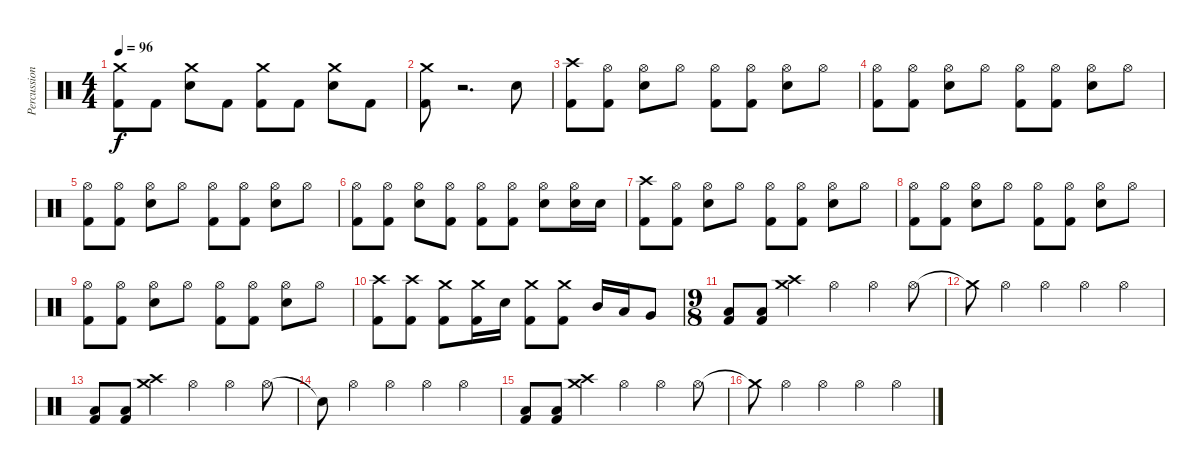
\track ("Percussion" "Percussion") {instrument percussion}
\staff {score}
\articulation defaults
\ts (4 4)
\tempo 96
\clef neutral
\ks c
("Crash medium (hit)" "Kick (hit) 2").8{dy f} "Kick (hit) 2".8 ("Crash medium (hit)" "Electric Snare (hit)").8 "Kick (hit) 2".8 ("Crash medium (hit)" "Kick (hit) 2").8 "Kick (hit) 2".8 ("Crash medium (hit)" "Electric Snare (hit)").8 "Kick (hit) 2".8 |
("Crash medium (hit)" "Kick (hit) 2").8 r.2{d} "Electric Snare (hit)".8 |
("Crash high (hit)" "Kick (hit) 2").8 ("Hi-Hat (open)" "Kick (hit) 2").8 ("Hi-Hat (open)" "Electric Snare (hit)").8 "Hi-Hat (open)".8 ("Hi-Hat (open)" "Kick (hit) 2").8 ("Hi-Hat (open)" "Kick (hit) 2").8 ("Hi-Hat (open)" "Electric Snare (hit)").8 "Hi-Hat (open)".8 |
("Hi-Hat (open)" "Kick (hit) 2").8 ("Hi-Hat (open)" "Kick (hit) 2").8 ("Hi-Hat (open)" "Electric Snare (hit)").8 "Hi-Hat (open)".8 ("Hi-Hat (open)" "Kick (hit) 2").8 ("Hi-Hat (open)" "Kick (hit) 2").8 ("Hi-Hat (open)" "Electric Snare (hit)").8 "Hi-Hat (open)".8 |
("Hi-Hat (open)" "Kick (hit) 2").8 ("Hi-Hat (open)" "Kick (hit) 2").8 ("Hi-Hat (open)" "Electric Snare (hit)").8 "Hi-Hat (open)".8 ("Hi-Hat (open)" "Kick (hit) 2").8 ("Hi-Hat (open)" "Kick (hit) 2").8 ("Hi-Hat (open)" "Electric Snare (hit)").8 "Hi-Hat (open)".8 |
("Hi-Hat (open)" "Kick (hit) 2").8 ("Hi-Hat (open)" "Kick (hit) 2").8 ("Hi-Hat (open)" "Electric Snare (hit)").8 ("Hi-Hat (open)" "Kick (hit) 2").8 ("Hi-Hat (open)" "Kick (hit) 2").8 ("Hi-Hat (open)" "Kick (hit) 2").8 ("Hi-Hat (open)" "Electric Snare (hit)").8 ("Hi-Hat (open)" "Electric Snare (hit)").16 "Electric Snare (hit)".16 |
("Crash high (hit)" "Kick (hit) 2").8 ("Hi-Hat (open)" "Kick (hit) 2").8 ("Hi-Hat (open)" "Electric Snare (hit)").8 "Hi-Hat (open)".8 ("Hi-Hat (open)" "Kick (hit) 2").8 ("Hi-Hat (open)" "Kick (hit) 2").8 ("Hi-Hat (open)" "Electric Snare (hit)").8 "Hi-Hat (open)".8 |
("Hi-Hat (open)" "Kick (hit) 2").8 ("Hi-Hat (open)" "Kick (hit) 2").8 ("Hi-Hat (open)" "Electric Snare (hit)").8 "Hi-Hat (open)".8 ("Hi-Hat (open)" "Kick (hit) 2").8 ("Hi-Hat (open)" "Kick (hit) 2").8 ("Hi-Hat (open)" "Electric Snare (hit)").8 "Hi-Hat (open)".8 |
("Hi-Hat (open)" "Kick (hit) 2").8 ("Hi-Hat (open)" "Kick (hit) 2").8 ("Hi-Hat (open)" "Electric Snare (hit)").8 "Hi-Hat (open)".8 ("Hi-Hat (open)" "Kick (hit) 2").8 ("Hi-Hat (open)" "Kick (hit) 2").8 ("Hi-Hat (open)" "Electric Snare (hit)").8 "Hi-Hat (open)".8 |
("Crash high (hit)" "Kick (hit) 2").8 ("Crash high (hit)" "Kick (hit) 2").8 ("Crash medium (hit)" "Kick (hit) 2").8 ("Crash medium (hit)" "Kick (hit) 2").16 "Electric Snare (hit)".16 ("Crash medium (hit)" "Kick (hit) 2").8 ("Crash medium (hit)" "Kick (hit) 2").8 "Mid Tom (hit)".16 "Low Tom (hit)".16 "Very Low Tom (hit)".8 |
\ts (9 8)
("Low Floor Tom (hit)" "Kick (hit) 2").8 ("Low Floor Tom (hit)" "Kick (hit) 2").8 ("Crash medium (hit)" "Crash high (hit)").4 "Hi-Hat (open)".4 "Hi-Hat (open)".4 "Hi-Hat (open)".8 |
"Crash medium (hit)"{t}.8 "Hi-Hat (open)".4 "Hi-Hat (open)".4 "Hi-Hat (open)".4 "Hi-Hat (open)".4 |
("Low Floor Tom (hit)" "Kick (hit) 2").8 ("Low Floor Tom (hit)" "Kick (hit) 2").8 ("Crash medium (hit)" "Crash high (hit)").4 "Hi-Hat (open)".4 "Hi-Hat (open)".4 "Hi-Hat (open)".8 |
"Snare (hit)"{t}.8 "Hi-Hat (open)".4 "Hi-Hat (open)".4 "Hi-Hat (open)".4 "Hi-Hat (open)".4 |
("Low Floor Tom (hit)" "Kick (hit) 2").8 ("Low Floor Tom (hit)" "Kick (hit) 2").8 ("Crash medium (hit)" "Crash high (hit)").4 "Hi-Hat (open)".4 "Hi-Hat (open)".4 "Hi-Hat (open)".8 |
"Crash medium (hit)"{t}.8 "Hi-Hat (open)".4 "Hi-Hat (open)".4 "Hi-Hat (open)".4 "Hi-Hat (open)".4
